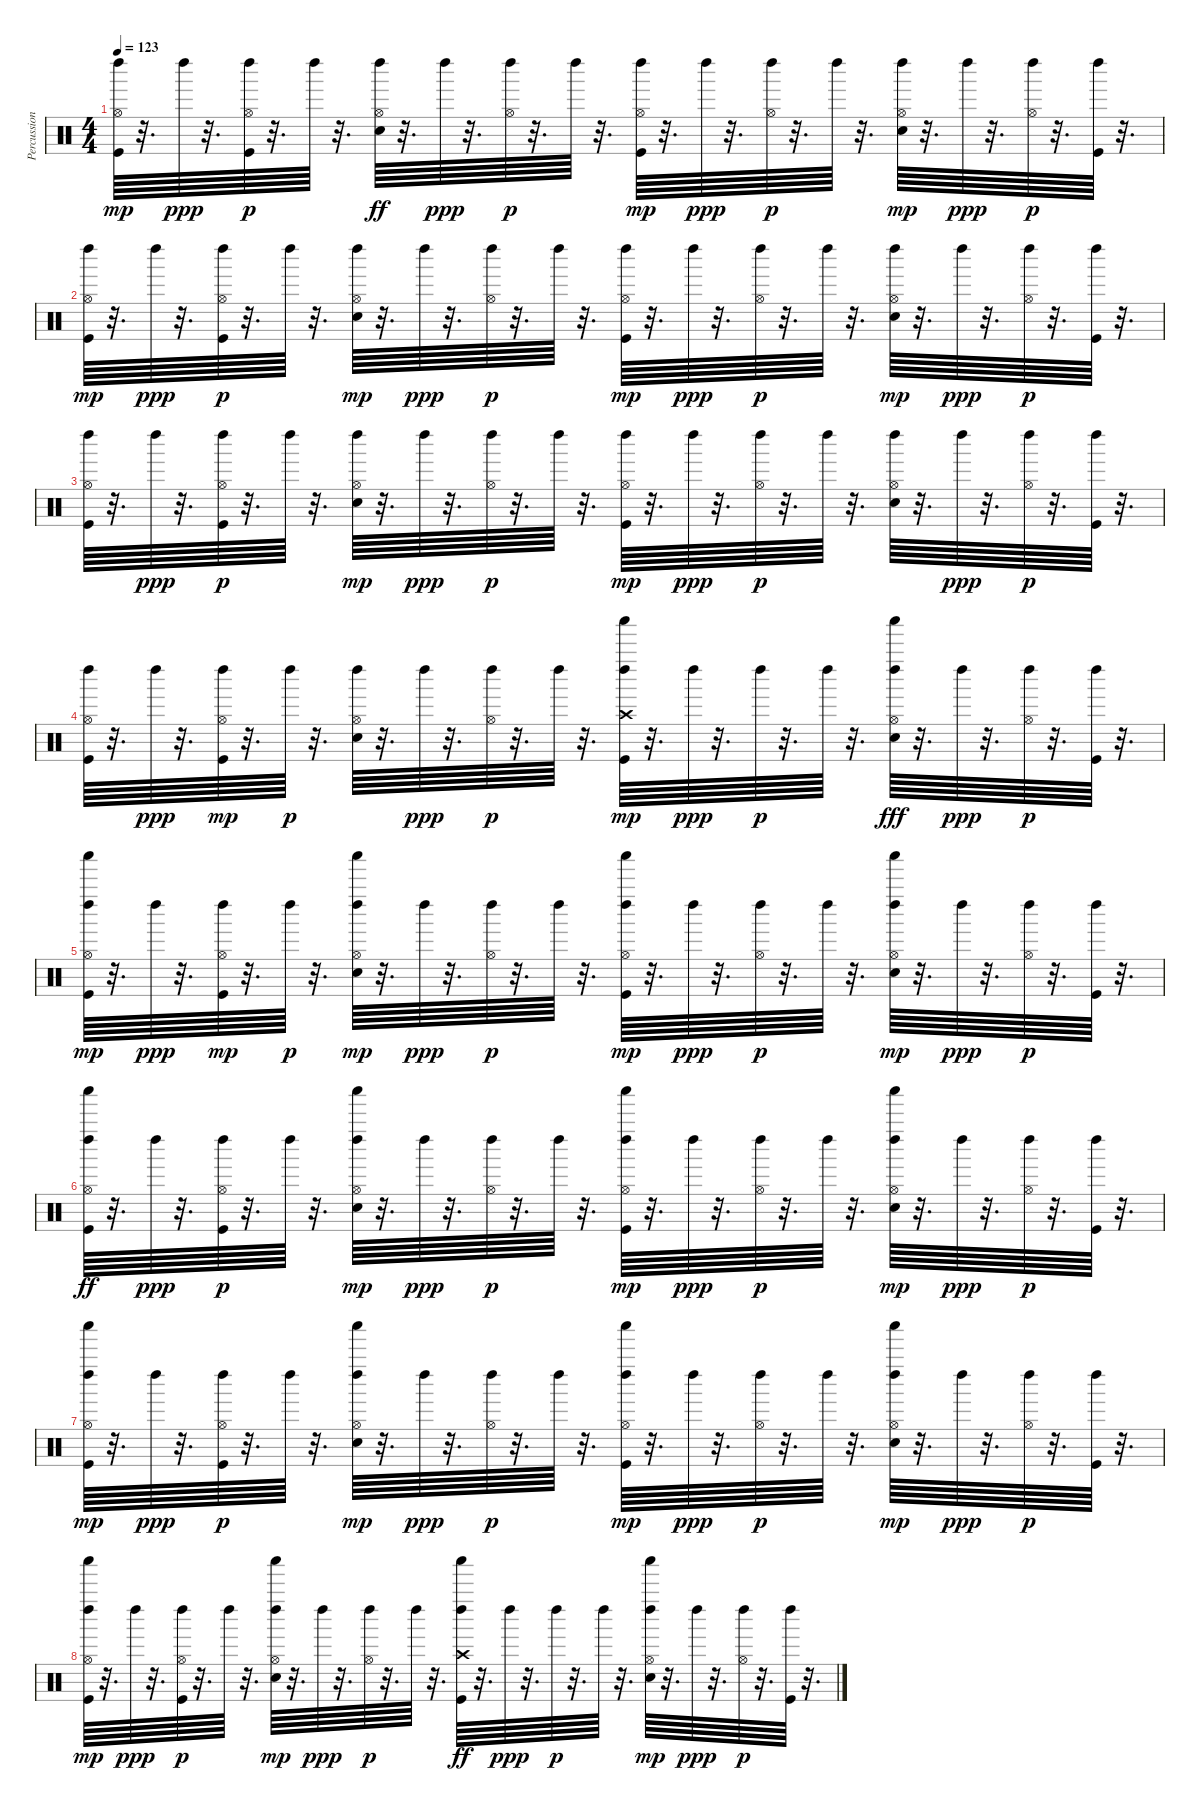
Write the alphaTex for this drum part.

\track ("Percussion" "Percussion") {instrument percussion}
\staff {score}
\articulation defaults
\ts (4 4)
\tempo 123
\clef neutral
\ks c
("Kick (hit)" "Hi-Hat (open)" "Left Maraca (hit)").64{dy mp} r.32{d} "Left Maraca (hit)".64{dy ppp} r.32{d} ("Left Maraca (hit)" "Kick (hit)" "Hi-Hat (open)").64{dy p} r.32{d} "Left Maraca (hit)".64 r.32{d} ("Hi-Hat (open)" "Left Maraca (hit)" "Electric Snare (hit)").64{dy ff} r.32{d} "Left Maraca (hit)".64{dy ppp} r.32{d} ("Hi-Hat (open)" "Left Maraca (hit)").64{dy p} r.32{d} "Left Maraca (hit)".64 r.32{d} ("Kick (hit)" "Hi-Hat (open)" "Left Maraca (hit)").64{dy mp} r.32{d} "Left Maraca (hit)".64{dy ppp} r.32{d} ("Hi-Hat (open)" "Left Maraca (hit)").64{dy p} r.32{d} "Left Maraca (hit)".64 r.32{d} ("Electric Snare (hit)" "Hi-Hat (open)" "Left Maraca (hit)").64{dy mp} r.32{d} "Left Maraca (hit)".64{dy ppp} r.32{d} ("Hi-Hat (open)" "Left Maraca (hit)").64{dy p} r.32{d} ("Kick (hit)" "Left Maraca (hit)").64 r.32{d} |
("Kick (hit)" "Hi-Hat (open)" "Left Maraca (hit)").64{dy mp} r.32{d} "Left Maraca (hit)".64{dy ppp} r.32{d} ("Left Maraca (hit)" "Kick (hit)" "Hi-Hat (open)").64{dy p} r.32{d} "Left Maraca (hit)".64 r.32{d} ("Electric Snare (hit)" "Hi-Hat (open)" "Left Maraca (hit)").64{dy mp} r.32{d} "Left Maraca (hit)".64{dy ppp} r.32{d} ("Hi-Hat (open)" "Left Maraca (hit)").64{dy p} r.32{d} "Left Maraca (hit)".64 r.32{d} ("Kick (hit)" "Hi-Hat (open)" "Left Maraca (hit)").64{dy mp} r.32{d} "Left Maraca (hit)".64{dy ppp} r.32{d} ("Hi-Hat (open)" "Left Maraca (hit)").64{dy p} r.32{d} "Left Maraca (hit)".64 r.32{d} ("Electric Snare (hit)" "Hi-Hat (open)" "Left Maraca (hit)").64{dy mp} r.32{d} "Left Maraca (hit)".64{dy ppp} r.32{d} ("Hi-Hat (open)" "Left Maraca (hit)").64{dy p} r.32{d} ("Kick (hit)" "Left Maraca (hit)").64 r.32{d} |
("Left Maraca (hit)" "Kick (hit)" "Hi-Hat (open)").64 r.32{d} "Left Maraca (hit)".64{dy ppp} r.32{d} ("Kick (hit)" "Hi-Hat (open)" "Left Maraca (hit)").64{dy p} r.32{d} "Left Maraca (hit)".64 r.32{d} ("Electric Snare (hit)" "Hi-Hat (open)" "Left Maraca (hit)").64{dy mp} r.32{d} "Left Maraca (hit)".64{dy ppp} r.32{d} ("Hi-Hat (open)" "Left Maraca (hit)").64{dy p} r.32{d} "Left Maraca (hit)".64 r.32{d} ("Kick (hit)" "Hi-Hat (open)" "Left Maraca (hit)").64{dy mp} r.32{d} "Left Maraca (hit)".64{dy ppp} r.32{d} ("Hi-Hat (open)" "Left Maraca (hit)").64{dy p} r.32{d} "Left Maraca (hit)".64 r.32{d} ("Left Maraca (hit)" "Electric Snare (hit)" "Hi-Hat (open)").64 r.32{d} "Left Maraca (hit)".64{dy ppp} r.32{d} ("Hi-Hat (open)" "Left Maraca (hit)").64{dy p} r.32{d} ("Kick (hit)" "Left Maraca (hit)").64 r.32{d} |
("Left Maraca (hit)" "Kick (hit)" "Hi-Hat (open)").64 r.32{d} "Left Maraca (hit)".64{dy ppp} r.32{d} ("Hi-Hat (open)" "Left Maraca (hit)" "Kick (hit)").64{dy mp} r.32{d} "Left Maraca (hit)".64{dy p} r.32{d} ("Left Maraca (hit)" "Electric Snare (hit)" "Hi-Hat (open)").64 r.32{d} "Left Maraca (hit)".64{dy ppp} r.32{d} ("Hi-Hat (open)" "Left Maraca (hit)").64{dy p} r.32{d} "Left Maraca (hit)".64 r.32{d} ("Kick (hit)" "Crash high (hit)" "Left Maraca (hit)" "Shaker (hit)").64{dy mp} r.32{d} "Left Maraca (hit)".64{dy ppp} r.32{d} "Left Maraca (hit)".64{dy p} r.32{d} "Left Maraca (hit)".64 r.32{d} ("Shaker (hit)" "Left Maraca (hit)" "Hi-Hat (open)" "Electric Snare (hit)").64{dy fff} r.32{d} "Left Maraca (hit)".64{dy ppp} r.32{d} ("Hi-Hat (open)" "Left Maraca (hit)").64{dy p} r.32{d} ("Kick (hit)" "Left Maraca (hit)").64 r.32{d} |
("Hi-Hat (open)" "Kick (hit)" "Shaker (hit)" "Left Maraca (hit)").64{dy mp} r.32{d} "Left Maraca (hit)".64{dy ppp} r.32{d} ("Hi-Hat (open)" "Left Maraca (hit)" "Kick (hit)").64{dy mp} r.32{d} "Left Maraca (hit)".64{dy p} r.32{d} ("Hi-Hat (open)" "Electric Snare (hit)" "Shaker (hit)" "Left Maraca (hit)").64{dy mp} r.32{d} "Left Maraca (hit)".64{dy ppp} r.32{d} ("Hi-Hat (open)" "Left Maraca (hit)").64{dy p} r.32{d} "Left Maraca (hit)".64 r.32{d} ("Left Maraca (hit)" "Kick (hit)" "Hi-Hat (open)" "Shaker (hit)").64{dy mp} r.32{d} "Left Maraca (hit)".64{dy ppp} r.32{d} ("Hi-Hat (open)" "Left Maraca (hit)").64{dy p} r.32{d} "Left Maraca (hit)".64 r.32{d} ("Hi-Hat (open)" "Electric Snare (hit)" "Shaker (hit)" "Left Maraca (hit)").64{dy mp} r.32{d} "Left Maraca (hit)".64{dy ppp} r.32{d} ("Hi-Hat (open)" "Left Maraca (hit)").64{dy p} r.32{d} ("Kick (hit)" "Left Maraca (hit)").64 r.32{d} |
("Left Maraca (hit)" "Hi-Hat (open)" "Shaker (hit)" "Kick (hit)").64{dy ff} r.32{d} "Left Maraca (hit)".64{dy ppp} r.32{d} ("Kick (hit)" "Hi-Hat (open)" "Left Maraca (hit)").64{dy p} r.32{d} "Left Maraca (hit)".64 r.32{d} ("Electric Snare (hit)" "Hi-Hat (open)" "Left Maraca (hit)" "Shaker (hit)").64{dy mp} r.32{d} "Left Maraca (hit)".64{dy ppp} r.32{d} ("Hi-Hat (open)" "Left Maraca (hit)").64{dy p} r.32{d} "Left Maraca (hit)".64 r.32{d} ("Kick (hit)" "Hi-Hat (open)" "Left Maraca (hit)" "Shaker (hit)").64{dy mp} r.32{d} "Left Maraca (hit)".64{dy ppp} r.32{d} ("Hi-Hat (open)" "Left Maraca (hit)").64{dy p} r.32{d} "Left Maraca (hit)".64 r.32{d} ("Shaker (hit)" "Hi-Hat (open)" "Electric Snare (hit)" "Left Maraca (hit)").64{dy mp} r.32{d} "Left Maraca (hit)".64{dy ppp} r.32{d} ("Hi-Hat (open)" "Left Maraca (hit)").64{dy p} r.32{d} ("Kick (hit)" "Left Maraca (hit)").64 r.32{d} |
("Kick (hit)" "Hi-Hat (open)" "Left Maraca (hit)" "Shaker (hit)").64{dy mp} r.32{d} "Left Maraca (hit)".64{dy ppp} r.32{d} ("Left Maraca (hit)" "Kick (hit)" "Hi-Hat (open)").64{dy p} r.32{d} "Left Maraca (hit)".64 r.32{d} ("Electric Snare (hit)" "Hi-Hat (open)" "Left Maraca (hit)" "Shaker (hit)").64{dy mp} r.32{d} "Left Maraca (hit)".64{dy ppp} r.32{d} ("Hi-Hat (open)" "Left Maraca (hit)").64{dy p} r.32{d} "Left Maraca (hit)".64 r.32{d} ("Kick (hit)" "Hi-Hat (open)" "Left Maraca (hit)" "Shaker (hit)").64{dy mp} r.32{d} "Left Maraca (hit)".64{dy ppp} r.32{d} ("Hi-Hat (open)" "Left Maraca (hit)").64{dy p} r.32{d} "Left Maraca (hit)".64 r.32{d} ("Electric Snare (hit)" "Hi-Hat (open)" "Left Maraca (hit)" "Shaker (hit)").64{dy mp} r.32{d} "Left Maraca (hit)".64{dy ppp} r.32{d} ("Hi-Hat (open)" "Left Maraca (hit)").64{dy p} r.32{d} ("Kick (hit)" "Left Maraca (hit)").64 r.32{d} |
("Shaker (hit)" "Hi-Hat (open)" "Kick (hit)" "Left Maraca (hit)").64{dy mp} r.32{d} "Left Maraca (hit)".64{dy ppp} r.32{d} ("Kick (hit)" "Hi-Hat (open)" "Left Maraca (hit)").64{dy p} r.32{d} "Left Maraca (hit)".64 r.32{d} ("Electric Snare (hit)" "Hi-Hat (open)" "Left Maraca (hit)" "Shaker (hit)").64{dy mp} r.32{d} "Left Maraca (hit)".64{dy ppp} r.32{d} ("Hi-Hat (open)" "Left Maraca (hit)").64{dy p} r.32{d} "Left Maraca (hit)".64 r.32{d} ("Left Maraca (hit)" "Crash high (hit)" "Shaker (hit)" "Kick (hit)").64{dy ff} r.32{d} "Left Maraca (hit)".64{dy ppp} r.32{d} "Left Maraca (hit)".64{dy p} r.32{d} "Left Maraca (hit)".64 r.32{d} ("Electric Snare (hit)" "Hi-Hat (open)" "Left Maraca (hit)" "Shaker (hit)").64{dy mp} r.32{d} "Left Maraca (hit)".64{dy ppp} r.32{d} ("Hi-Hat (open)" "Left Maraca (hit)").64{dy p} r.32{d} ("Kick (hit)" "Left Maraca (hit)").64 r.32{d}
